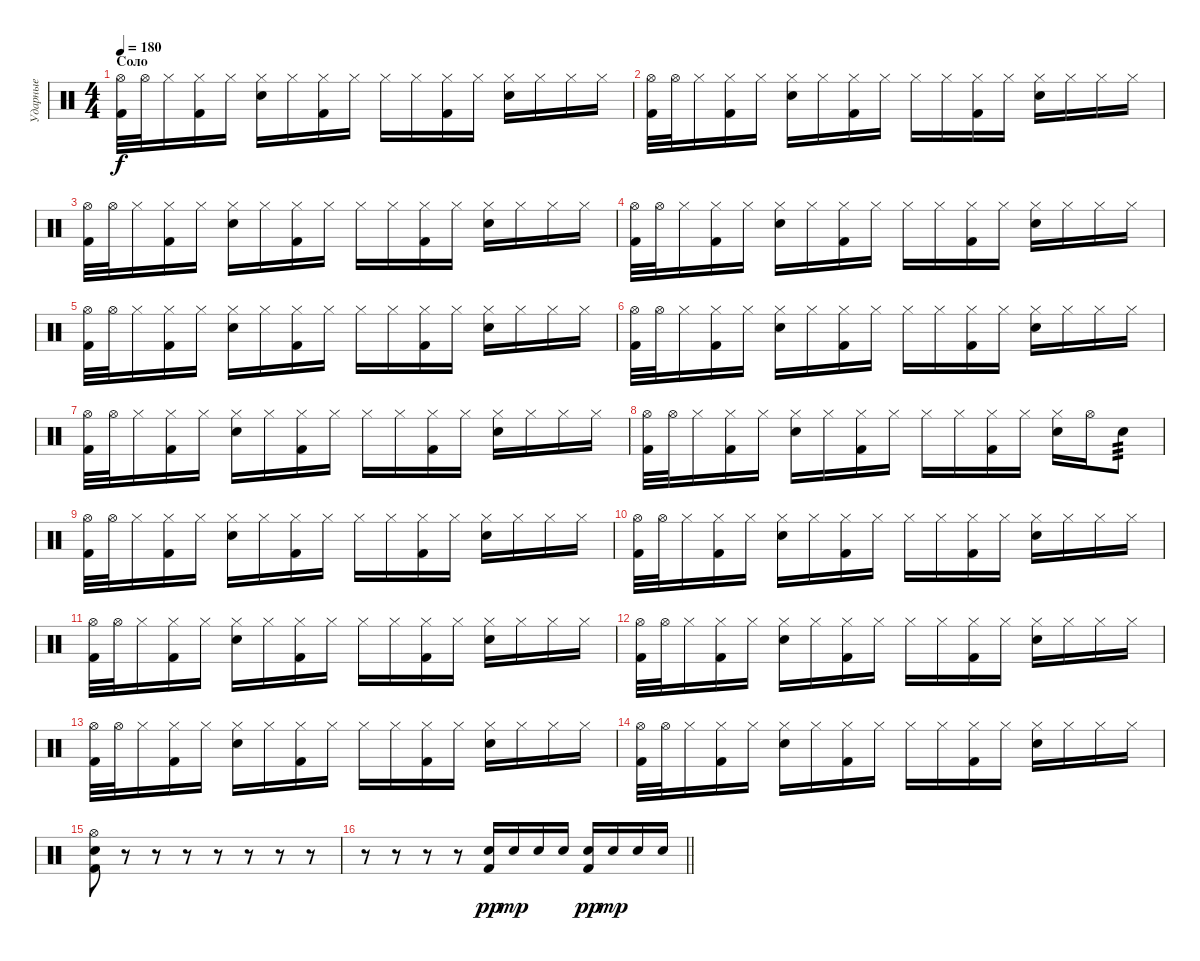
\track ("Ударные" "Ударные") {instrument percussion}
\staff {score}
\articulation defaults
\ts (4 4)
\section ("" "Соло")
\tempo 180
\clef neutral
\ks c
("Hi-Hat (open)" "Kick (hit) 2").32{dy f} "Hi-Hat (open)".32 "Hi-Hat (closed)".16 ("Hi-Hat (closed)" "Kick (hit) 2").16 "Hi-Hat (closed)".16 ("Hi-Hat (closed)" "Snare (hit) 2").16 "Hi-Hat (closed)".16 ("Hi-Hat (closed)" "Kick (hit) 2").16 "Hi-Hat (closed)".16 "Hi-Hat (closed)".16 "Hi-Hat (closed)".16 ("Hi-Hat (closed)" "Kick (hit) 2").16 "Hi-Hat (closed)".16 ("Hi-Hat (closed)" "Snare (hit) 2").16 "Hi-Hat (closed)".16 "Hi-Hat (closed)".16 "Hi-Hat (closed)".16 |
("Hi-Hat (open)" "Kick (hit) 2").32 "Hi-Hat (open)".32 "Hi-Hat (closed)".16 ("Hi-Hat (closed)" "Kick (hit) 2").16 "Hi-Hat (closed)".16 ("Hi-Hat (closed)" "Snare (hit) 2").16 "Hi-Hat (closed)".16 ("Hi-Hat (closed)" "Kick (hit) 2").16 "Hi-Hat (closed)".16 "Hi-Hat (closed)".16 "Hi-Hat (closed)".16 ("Hi-Hat (closed)" "Kick (hit) 2").16 "Hi-Hat (closed)".16 ("Hi-Hat (closed)" "Snare (hit) 2").16 "Hi-Hat (closed)".16 "Hi-Hat (closed)".16 "Hi-Hat (closed)".16 |
("Hi-Hat (open)" "Kick (hit) 2").32 "Hi-Hat (open)".32 "Hi-Hat (closed)".16 ("Hi-Hat (closed)" "Kick (hit) 2").16 "Hi-Hat (closed)".16 ("Hi-Hat (closed)" "Snare (hit) 2").16 "Hi-Hat (closed)".16 ("Hi-Hat (closed)" "Kick (hit) 2").16 "Hi-Hat (closed)".16 "Hi-Hat (closed)".16 "Hi-Hat (closed)".16 ("Hi-Hat (closed)" "Kick (hit) 2").16 "Hi-Hat (closed)".16 ("Hi-Hat (closed)" "Snare (hit) 2").16 "Hi-Hat (closed)".16 "Hi-Hat (closed)".16 "Hi-Hat (closed)".16 |
("Hi-Hat (open)" "Kick (hit) 2").32 "Hi-Hat (open)".32 "Hi-Hat (closed)".16 ("Hi-Hat (closed)" "Kick (hit) 2").16 "Hi-Hat (closed)".16 ("Hi-Hat (closed)" "Snare (hit) 2").16 "Hi-Hat (closed)".16 ("Hi-Hat (closed)" "Kick (hit) 2").16 "Hi-Hat (closed)".16 "Hi-Hat (closed)".16 "Hi-Hat (closed)".16 ("Hi-Hat (closed)" "Kick (hit) 2").16 "Hi-Hat (closed)".16 ("Hi-Hat (closed)" "Snare (hit) 2").16 "Hi-Hat (closed)".16 "Hi-Hat (closed)".16 "Hi-Hat (closed)".16 |
("Hi-Hat (open)" "Kick (hit) 2").32 "Hi-Hat (open)".32 "Hi-Hat (closed)".16 ("Hi-Hat (closed)" "Kick (hit) 2").16 "Hi-Hat (closed)".16 ("Hi-Hat (closed)" "Snare (hit) 2").16 "Hi-Hat (closed)".16 ("Hi-Hat (closed)" "Kick (hit) 2").16 "Hi-Hat (closed)".16 "Hi-Hat (closed)".16 "Hi-Hat (closed)".16 ("Hi-Hat (closed)" "Kick (hit) 2").16 "Hi-Hat (closed)".16 ("Hi-Hat (closed)" "Snare (hit) 2").16 "Hi-Hat (closed)".16 "Hi-Hat (closed)".16 "Hi-Hat (closed)".16 |
("Hi-Hat (open)" "Kick (hit) 2").32 "Hi-Hat (open)".32 "Hi-Hat (closed)".16 ("Hi-Hat (closed)" "Kick (hit) 2").16 "Hi-Hat (closed)".16 ("Hi-Hat (closed)" "Snare (hit) 2").16 "Hi-Hat (closed)".16 ("Hi-Hat (closed)" "Kick (hit) 2").16 "Hi-Hat (closed)".16 "Hi-Hat (closed)".16 "Hi-Hat (closed)".16 ("Hi-Hat (closed)" "Kick (hit) 2").16 "Hi-Hat (closed)".16 ("Hi-Hat (closed)" "Snare (hit) 2").16 "Hi-Hat (closed)".16 "Hi-Hat (closed)".16 "Hi-Hat (closed)".16 |
("Hi-Hat (open)" "Kick (hit) 2").32 "Hi-Hat (open)".32 "Hi-Hat (closed)".16 ("Hi-Hat (closed)" "Kick (hit) 2").16 "Hi-Hat (closed)".16 ("Hi-Hat (closed)" "Snare (hit) 2").16 "Hi-Hat (closed)".16 ("Hi-Hat (closed)" "Kick (hit) 2").16 "Hi-Hat (closed)".16 "Hi-Hat (closed)".16 "Hi-Hat (closed)".16 ("Hi-Hat (closed)" "Kick (hit) 2").16 "Hi-Hat (closed)".16 ("Hi-Hat (closed)" "Snare (hit) 2").16 "Hi-Hat (closed)".16 "Hi-Hat (closed)".16 "Hi-Hat (closed)".16 |
("Hi-Hat (open)" "Kick (hit) 2").32 "Hi-Hat (open)".32 "Hi-Hat (closed)".16 ("Hi-Hat (closed)" "Kick (hit) 2").16 "Hi-Hat (closed)".16 ("Hi-Hat (closed)" "Snare (hit) 2").16 "Hi-Hat (closed)".16 ("Hi-Hat (closed)" "Kick (hit) 2").16 "Hi-Hat (closed)".16 "Hi-Hat (closed)".16 "Hi-Hat (closed)".16 ("Hi-Hat (closed)" "Kick (hit) 2").16 "Hi-Hat (closed)".16 ("Hi-Hat (closed)" "Snare (hit) 2").16 "Hi-Hat (open)".16 "Snare (hit) 2".8{tp 3} |
("Hi-Hat (open)" "Kick (hit) 2").32 "Hi-Hat (open)".32 "Hi-Hat (closed)".16 ("Hi-Hat (closed)" "Kick (hit) 2").16 "Hi-Hat (closed)".16 ("Hi-Hat (closed)" "Snare (hit) 2").16 "Hi-Hat (closed)".16 ("Hi-Hat (closed)" "Kick (hit) 2").16 "Hi-Hat (closed)".16 "Hi-Hat (closed)".16 "Hi-Hat (closed)".16 ("Hi-Hat (closed)" "Kick (hit) 2").16 "Hi-Hat (closed)".16 ("Hi-Hat (closed)" "Snare (hit) 2").16 "Hi-Hat (closed)".16 "Hi-Hat (closed)".16 "Hi-Hat (closed)".16 |
("Hi-Hat (open)" "Kick (hit) 2").32 "Hi-Hat (open)".32 "Hi-Hat (closed)".16 ("Hi-Hat (closed)" "Kick (hit) 2").16 "Hi-Hat (closed)".16 ("Hi-Hat (closed)" "Snare (hit) 2").16 "Hi-Hat (closed)".16 ("Hi-Hat (closed)" "Kick (hit) 2").16 "Hi-Hat (closed)".16 "Hi-Hat (closed)".16 "Hi-Hat (closed)".16 ("Hi-Hat (closed)" "Kick (hit) 2").16 "Hi-Hat (closed)".16 ("Hi-Hat (closed)" "Snare (hit) 2").16 "Hi-Hat (closed)".16 "Hi-Hat (closed)".16 "Hi-Hat (closed)".16 |
("Hi-Hat (open)" "Kick (hit) 2").32 "Hi-Hat (open)".32 "Hi-Hat (closed)".16 ("Hi-Hat (closed)" "Kick (hit) 2").16 "Hi-Hat (closed)".16 ("Hi-Hat (closed)" "Snare (hit) 2").16 "Hi-Hat (closed)".16 ("Hi-Hat (closed)" "Kick (hit) 2").16 "Hi-Hat (closed)".16 "Hi-Hat (closed)".16 "Hi-Hat (closed)".16 ("Hi-Hat (closed)" "Kick (hit) 2").16 "Hi-Hat (closed)".16 ("Hi-Hat (closed)" "Snare (hit) 2").16 "Hi-Hat (closed)".16 "Hi-Hat (closed)".16 "Hi-Hat (closed)".16 |
("Hi-Hat (open)" "Kick (hit) 2").32 "Hi-Hat (open)".32 "Hi-Hat (closed)".16 ("Hi-Hat (closed)" "Kick (hit) 2").16 "Hi-Hat (closed)".16 ("Hi-Hat (closed)" "Snare (hit) 2").16 "Hi-Hat (closed)".16 ("Hi-Hat (closed)" "Kick (hit) 2").16 "Hi-Hat (closed)".16 "Hi-Hat (closed)".16 "Hi-Hat (closed)".16 ("Hi-Hat (closed)" "Kick (hit) 2").16 "Hi-Hat (closed)".16 ("Hi-Hat (closed)" "Snare (hit) 2").16 "Hi-Hat (closed)".16 "Hi-Hat (closed)".16 "Hi-Hat (closed)".16 |
("Hi-Hat (open)" "Kick (hit) 2").32 "Hi-Hat (open)".32 "Hi-Hat (closed)".16 ("Hi-Hat (closed)" "Kick (hit) 2").16 "Hi-Hat (closed)".16 ("Hi-Hat (closed)" "Snare (hit) 2").16 "Hi-Hat (closed)".16 ("Hi-Hat (closed)" "Kick (hit) 2").16 "Hi-Hat (closed)".16 "Hi-Hat (closed)".16 "Hi-Hat (closed)".16 ("Hi-Hat (closed)" "Kick (hit) 2").16 "Hi-Hat (closed)".16 ("Hi-Hat (closed)" "Snare (hit) 2").16 "Hi-Hat (closed)".16 "Hi-Hat (closed)".16 "Hi-Hat (closed)".16 |
("Hi-Hat (open)" "Kick (hit) 2").32 "Hi-Hat (open)".32 "Hi-Hat (closed)".16 ("Hi-Hat (closed)" "Kick (hit) 2").16 "Hi-Hat (closed)".16 ("Hi-Hat (closed)" "Snare (hit) 2").16 "Hi-Hat (closed)".16 ("Hi-Hat (closed)" "Kick (hit) 2").16 "Hi-Hat (closed)".16 "Hi-Hat (closed)".16 "Hi-Hat (closed)".16 ("Hi-Hat (closed)" "Kick (hit) 2").16 "Hi-Hat (closed)".16 ("Hi-Hat (closed)" "Snare (hit) 2").16 "Hi-Hat (closed)".16 "Hi-Hat (closed)".16 "Hi-Hat (closed)".16 |
("Hi-Hat (open)" "Snare (hit) 2" "Kick (hit) 2").8 r.8 r.8 r.8 r.8 r.8 r.8 r.8 |
\barLineRight lightlight
r.8 r.8 r.8 r.8 ("Snare (hit) 2" "Kick (hit) 2").16{dy pp} "Snare (hit) 2".16{dy mp} "Snare (hit) 2".16 "Snare (hit) 2".16 ("Snare (hit) 2" "Kick (hit) 2").16{dy pp} "Snare (hit) 2".16{dy mp} "Snare (hit) 2".16 "Snare (hit) 2".16
